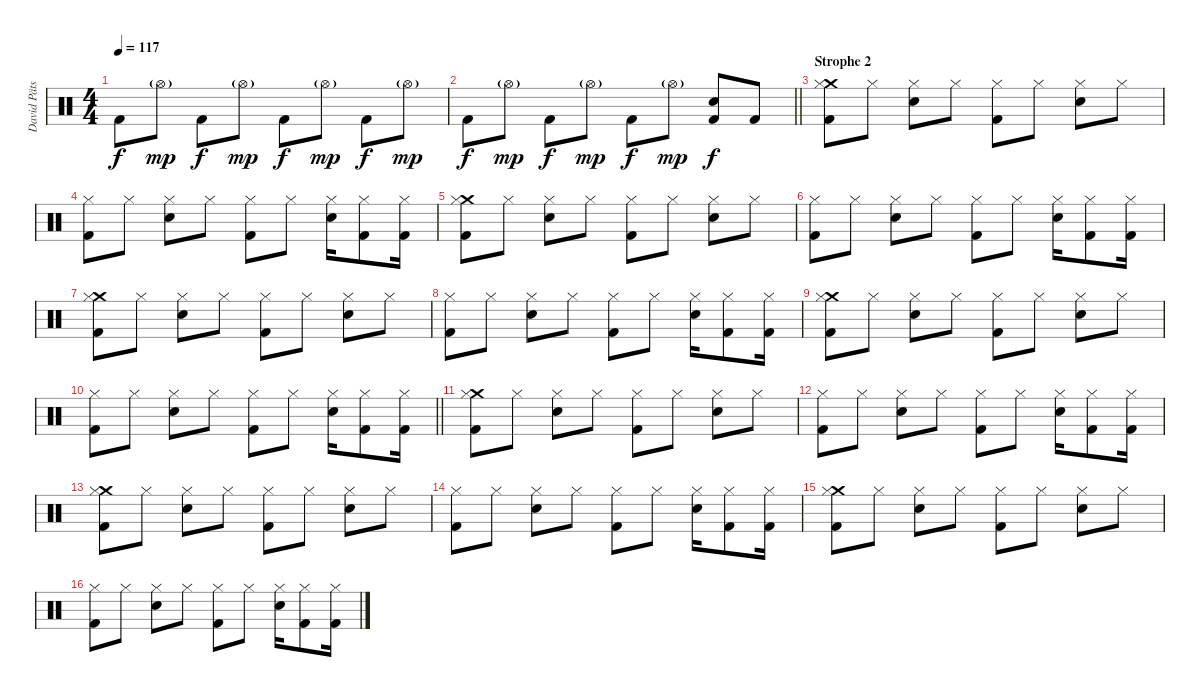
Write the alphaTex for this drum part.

\track ("David Pätsch" "David Päts") {instrument percussion}
\staff {score}
\articulation defaults
\ts (4 4)
\section ("" "")
\tempo 117
\clef neutral
\ks c "Kick (hit) 2".8{dy f} "Hi-Hat (open)"{g}.8{dy mp} "Kick (hit) 2".8{dy f} "Hi-Hat (open)"{g}.8{dy mp} "Kick (hit) 2".8{dy f} "Hi-Hat (open)"{g}.8{dy mp} "Kick (hit) 2".8{dy f} "Hi-Hat (open)"{g}.8{dy mp}
|
\barLineRight lightlight "Kick (hit) 2".8{dy f} "Hi-Hat (open)"{g}.8{dy mp} "Kick (hit) 2".8{dy f} "Hi-Hat (open)"{g}.8{dy mp} "Kick (hit) 2".8{dy f} "Hi-Hat (open)"{g}.8{dy mp}
("Snare (hit) 2" "Kick (hit) 2").8{dy f} "Kick (hit) 2".8 |
\section ("" "Strophe 2")
("Crash medium (hit)" "Hi-Hat (closed)" "Kick (hit) 2").8 "Hi-Hat (closed)".8 ("Hi-Hat (closed)" "Snare (hit) 2").8 "Hi-Hat (closed)".8 ("Hi-Hat (closed)" "Kick (hit) 2").8 "Hi-Hat (closed)".8 ("Hi-Hat (closed)" "Snare (hit) 2").8 "Hi-Hat (closed)".8 |
("Hi-Hat (closed)" "Kick (hit) 2").8 "Hi-Hat (closed)".8 ("Hi-Hat (closed)" "Snare (hit) 2").8 "Hi-Hat (closed)".8 ("Hi-Hat (closed)" "Kick (hit) 2").8 "Hi-Hat (closed)".8 ("Hi-Hat (closed)" "Snare (hit) 2").16 ("Hi-Hat (closed)" "Kick (hit) 2").8 ("Hi-Hat (closed)" "Kick (hit) 2").16 |
("Crash medium (hit)" "Hi-Hat (closed)" "Kick (hit) 2").8 "Hi-Hat (closed)".8 ("Hi-Hat (closed)" "Snare (hit) 2").8 "Hi-Hat (closed)".8 ("Hi-Hat (closed)" "Kick (hit) 2").8 "Hi-Hat (closed)".8 ("Hi-Hat (closed)" "Snare (hit) 2").8 "Hi-Hat (closed)".8 |
("Hi-Hat (closed)" "Kick (hit) 2").8 "Hi-Hat (closed)".8 ("Hi-Hat (closed)" "Snare (hit) 2").8 "Hi-Hat (closed)".8 ("Hi-Hat (closed)" "Kick (hit) 2").8 "Hi-Hat (closed)".8 ("Hi-Hat (closed)" "Snare (hit) 2").16 ("Hi-Hat (closed)" "Kick (hit) 2").8 ("Hi-Hat (closed)" "Kick (hit) 2").16 |
("Crash medium (hit)" "Hi-Hat (closed)" "Kick (hit) 2").8 "Hi-Hat (closed)".8 ("Hi-Hat (closed)" "Snare (hit) 2").8 "Hi-Hat (closed)".8 ("Hi-Hat (closed)" "Kick (hit) 2").8 "Hi-Hat (closed)".8 ("Hi-Hat (closed)" "Snare (hit) 2").8 "Hi-Hat (closed)".8 |
("Hi-Hat (closed)" "Kick (hit) 2").8 "Hi-Hat (closed)".8 ("Hi-Hat (closed)" "Snare (hit) 2").8 "Hi-Hat (closed)".8 ("Hi-Hat (closed)" "Kick (hit) 2").8 "Hi-Hat (closed)".8 ("Hi-Hat (closed)" "Snare (hit) 2").16 ("Hi-Hat (closed)" "Kick (hit) 2").8 ("Hi-Hat (closed)" "Kick (hit) 2").16 |
("Crash medium (hit)" "Hi-Hat (closed)" "Kick (hit) 2").8 "Hi-Hat (closed)".8 ("Hi-Hat (closed)" "Snare (hit) 2").8 "Hi-Hat (closed)".8 ("Hi-Hat (closed)" "Kick (hit) 2").8 "Hi-Hat (closed)".8 ("Hi-Hat (closed)" "Snare (hit) 2").8 "Hi-Hat (closed)".8 |
\barLineRight lightlight
("Hi-Hat (closed)" "Kick (hit) 2").8 "Hi-Hat (closed)".8 ("Hi-Hat (closed)" "Snare (hit) 2").8 "Hi-Hat (closed)".8 ("Hi-Hat (closed)" "Kick (hit) 2").8 "Hi-Hat (closed)".8 ("Hi-Hat (closed)" "Snare (hit) 2").16 ("Hi-Hat (closed)" "Kick (hit) 2").8 ("Hi-Hat (closed)" "Kick (hit) 2").16 |
("Crash medium (hit)" "Hi-Hat (closed)" "Kick (hit) 2").8 "Hi-Hat (closed)".8 ("Hi-Hat (closed)" "Snare (hit) 2").8 "Hi-Hat (closed)".8 ("Hi-Hat (closed)" "Kick (hit) 2").8 "Hi-Hat (closed)".8 ("Hi-Hat (closed)" "Snare (hit) 2").8 "Hi-Hat (closed)".8 |
("Hi-Hat (closed)" "Kick (hit) 2").8 "Hi-Hat (closed)".8 ("Hi-Hat (closed)" "Snare (hit) 2").8 "Hi-Hat (closed)".8 ("Hi-Hat (closed)" "Kick (hit) 2").8 "Hi-Hat (closed)".8 ("Hi-Hat (closed)" "Snare (hit) 2").16 ("Hi-Hat (closed)" "Kick (hit) 2").8 ("Hi-Hat (closed)" "Kick (hit) 2").16 |
("Crash medium (hit)" "Hi-Hat (closed)" "Kick (hit) 2").8 "Hi-Hat (closed)".8 ("Hi-Hat (closed)" "Snare (hit) 2").8 "Hi-Hat (closed)".8 ("Hi-Hat (closed)" "Kick (hit) 2").8 "Hi-Hat (closed)".8 ("Hi-Hat (closed)" "Snare (hit) 2").8 "Hi-Hat (closed)".8 |
("Hi-Hat (closed)" "Kick (hit) 2").8 "Hi-Hat (closed)".8 ("Hi-Hat (closed)" "Snare (hit) 2").8 "Hi-Hat (closed)".8 ("Hi-Hat (closed)" "Kick (hit) 2").8 "Hi-Hat (closed)".8 ("Hi-Hat (closed)" "Snare (hit) 2").16 ("Hi-Hat (closed)" "Kick (hit) 2").8 ("Hi-Hat (closed)" "Kick (hit) 2").16 |
("Crash medium (hit)" "Hi-Hat (closed)" "Kick (hit) 2").8 "Hi-Hat (closed)".8 ("Hi-Hat (closed)" "Snare (hit) 2").8 "Hi-Hat (closed)".8 ("Hi-Hat (closed)" "Kick (hit) 2").8 "Hi-Hat (closed)".8 ("Hi-Hat (closed)" "Snare (hit) 2").8 "Hi-Hat (closed)".8 |
("Hi-Hat (closed)" "Kick (hit) 2").8 "Hi-Hat (closed)".8 ("Hi-Hat (closed)" "Snare (hit) 2").8 "Hi-Hat (closed)".8 ("Hi-Hat (closed)" "Kick (hit) 2").8 "Hi-Hat (closed)".8 ("Hi-Hat (closed)" "Snare (hit) 2").16 ("Hi-Hat (closed)" "Kick (hit) 2").8 ("Hi-Hat (closed)" "Kick (hit) 2").16
